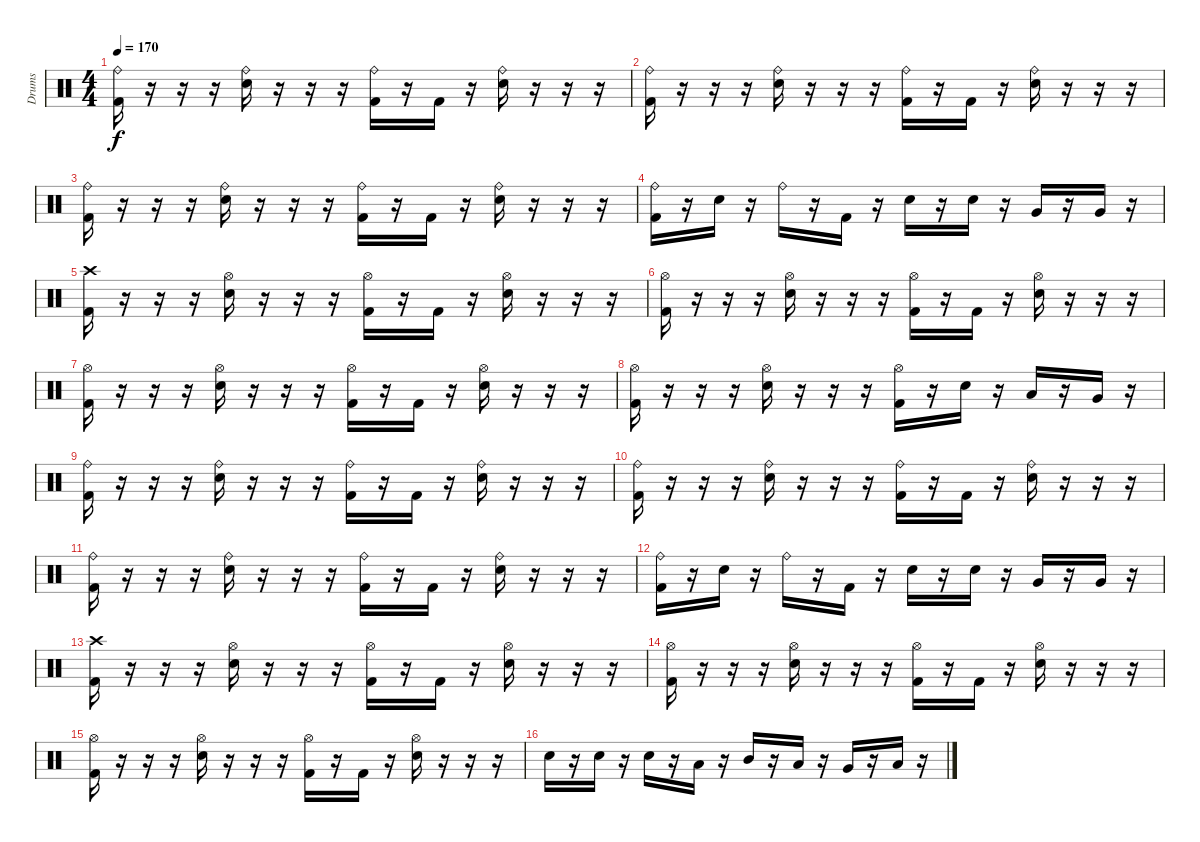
\track ("Drums" "Drums") {instrument percussion}
\staff {score}
\articulation defaults
\ts (4 4)
\tempo 170
\clef neutral
\ks c
("Ride (bell)" "Kick (hit) 2").16{dy f} r.16 r.16 r.16 ("Ride (bell)" "Snare (hit) 2").16 r.16 r.16 r.16 ("Ride (bell)" "Kick (hit) 2").16 r.16 "Kick (hit) 2".16 r.16 ("Ride (bell)" "Snare (hit) 2").16 r.16 r.16 r.16 |
("Ride (bell)" "Kick (hit) 2").16 r.16 r.16 r.16 ("Ride (bell)" "Snare (hit) 2").16 r.16 r.16 r.16 ("Ride (bell)" "Kick (hit) 2").16 r.16 "Kick (hit) 2".16 r.16 ("Ride (bell)" "Snare (hit) 2").16 r.16 r.16 r.16 |
("Ride (bell)" "Kick (hit) 2").16 r.16 r.16 r.16 ("Ride (bell)" "Snare (hit) 2").16 r.16 r.16 r.16 ("Ride (bell)" "Kick (hit) 2").16 r.16 "Kick (hit) 2".16 r.16 ("Ride (bell)" "Snare (hit) 2").16 r.16 r.16 r.16 |
("Ride (bell)" "Kick (hit) 2").16 r.16 "Snare (hit) 2".16 r.16 "Ride (bell)".16 r.16 "Kick (hit) 2".16 r.16 "Snare (hit) 2".16 r.16 "Snare (hit) 2".16 r.16 "Very Low Tom (hit)".16 r.16 "Very Low Tom (hit)".16 r.16 |
("Crash high (hit)" "Kick (hit) 2").16 r.16 r.16 r.16 ("Hi-Hat (open)" "Snare (hit) 2").16 r.16 r.16 r.16 ("Hi-Hat (open)" "Kick (hit) 2").16 r.16 "Kick (hit) 2".16 r.16 ("Hi-Hat (open)" "Snare (hit) 2").16 r.16 r.16 r.16 |
("Hi-Hat (open)" "Kick (hit) 2").16 r.16 r.16 r.16 ("Hi-Hat (open)" "Snare (hit) 2").16 r.16 r.16 r.16 ("Hi-Hat (open)" "Kick (hit) 2").16 r.16 "Kick (hit) 2".16 r.16 ("Hi-Hat (open)" "Snare (hit) 2").16 r.16 r.16 r.16 |
("Hi-Hat (open)" "Kick (hit) 2").16 r.16 r.16 r.16 ("Hi-Hat (open)" "Snare (hit) 2").16 r.16 r.16 r.16 ("Hi-Hat (open)" "Kick (hit) 2").16 r.16 "Kick (hit) 2".16 r.16 ("Hi-Hat (open)" "Snare (hit) 2").16 r.16 r.16 r.16 |
("Hi-Hat (open)" "Kick (hit) 2").16 r.16 r.16 r.16 ("Hi-Hat (open)" "Snare (hit) 2").16 r.16 r.16 r.16 ("Hi-Hat (open)" "Kick (hit) 2").16 r.16 "Snare (hit) 2".16 r.16 "Low Tom (hit)".16 r.16 "Very Low Tom (hit)".16 r.16 |
("Ride (bell)" "Kick (hit) 2").16 r.16 r.16 r.16 ("Ride (bell)" "Snare (hit) 2").16 r.16 r.16 r.16 ("Ride (bell)" "Kick (hit) 2").16 r.16 "Kick (hit) 2".16 r.16 ("Ride (bell)" "Snare (hit) 2").16 r.16 r.16 r.16 |
("Ride (bell)" "Kick (hit) 2").16 r.16 r.16 r.16 ("Ride (bell)" "Snare (hit) 2").16 r.16 r.16 r.16 ("Ride (bell)" "Kick (hit) 2").16 r.16 "Kick (hit) 2".16 r.16 ("Ride (bell)" "Snare (hit) 2").16 r.16 r.16 r.16 |
("Ride (bell)" "Kick (hit) 2").16 r.16 r.16 r.16 ("Ride (bell)" "Snare (hit) 2").16 r.16 r.16 r.16 ("Ride (bell)" "Kick (hit) 2").16 r.16 "Kick (hit) 2".16 r.16 ("Ride (bell)" "Snare (hit) 2").16 r.16 r.16 r.16 |
("Ride (bell)" "Kick (hit) 2").16 r.16 "Snare (hit) 2".16 r.16 "Ride (bell)".16 r.16 "Kick (hit) 2".16 r.16 "Snare (hit) 2".16 r.16 "Snare (hit) 2".16 r.16 "Very Low Tom (hit)".16 r.16 "Very Low Tom (hit)".16 r.16 |
("Crash high (hit)" "Kick (hit) 2").16 r.16 r.16 r.16 ("Hi-Hat (open)" "Snare (hit) 2").16 r.16 r.16 r.16 ("Hi-Hat (open)" "Kick (hit) 2").16 r.16 "Kick (hit) 2".16 r.16 ("Hi-Hat (open)" "Snare (hit) 2").16 r.16 r.16 r.16 |
("Hi-Hat (open)" "Kick (hit) 2").16 r.16 r.16 r.16 ("Hi-Hat (open)" "Snare (hit) 2").16 r.16 r.16 r.16 ("Hi-Hat (open)" "Kick (hit) 2").16 r.16 "Kick (hit) 2".16 r.16 ("Hi-Hat (open)" "Snare (hit) 2").16 r.16 r.16 r.16 |
("Hi-Hat (open)" "Kick (hit) 2").16 r.16 r.16 r.16 ("Hi-Hat (open)" "Snare (hit) 2").16 r.16 r.16 r.16 ("Hi-Hat (open)" "Kick (hit) 2").16 r.16 "Kick (hit) 2".16 r.16 ("Hi-Hat (open)" "Snare (hit) 2").16 r.16 r.16 r.16 |
"Snare (hit) 2".16 r.16 "Snare (hit) 2".16 r.16 "Snare (hit) 2".16 r.16 "Low Tom (hit)".16 r.16 "Mid Tom (hit)".16 r.16 "Low Tom (hit)".16 r.16 "Very Low Tom (hit)".16 r.16 "Low Floor Tom (hit)".16 r.16
